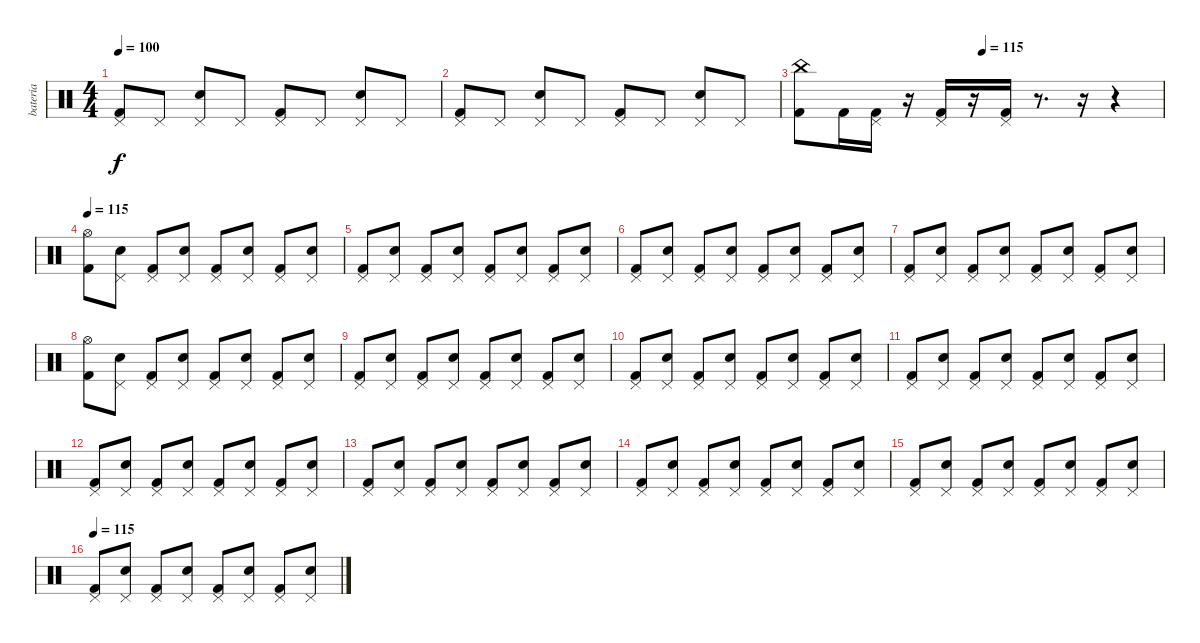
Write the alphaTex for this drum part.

\track ("bateria" "bateria") {instrument percussion}
\staff {score}
\articulation defaults
\ts (4 4)
\tempo 100
\clef neutral
\ks c
("Pedal Hi-Hat (hit)" "Kick (hit) 2").8{dy f} "Pedal Hi-Hat (hit)".8 ("Pedal Hi-Hat (hit)" "Snare (hit) 2").8 "Pedal Hi-Hat (hit)".8 ("Pedal Hi-Hat (hit)" "Kick (hit) 2").8 "Pedal Hi-Hat (hit)".8 ("Pedal Hi-Hat (hit)" "Snare (hit) 2").8 "Pedal Hi-Hat (hit)".8 |
("Pedal Hi-Hat (hit)" "Kick (hit) 2").8 "Pedal Hi-Hat (hit)".8 ("Pedal Hi-Hat (hit)" "Snare (hit) 2").8 "Pedal Hi-Hat (hit)".8 ("Pedal Hi-Hat (hit)" "Kick (hit) 2").8 "Pedal Hi-Hat (hit)".8 ("Pedal Hi-Hat (hit)" "Snare (hit) 2").8 "Pedal Hi-Hat (hit)".8 |
\tempo (115 0.5)
("China (hit)" "Kick (hit) 2").8 "Kick (hit) 2".16 ("Pedal Hi-Hat (hit)" "Kick (hit) 2").16 r.16 ("Pedal Hi-Hat (hit)" "Kick (hit) 2").16 r.16 ("Pedal Hi-Hat (hit)" "Kick (hit) 2").16 r.8{d} r.16 r.4 |
\section ("" "")
\tempo 115
("Hi-Hat (open)" "Kick (hit) 2").8 ("Pedal Hi-Hat (hit)" "Snare (hit) 2").8 ("Pedal Hi-Hat (hit)" "Kick (hit) 2").8 ("Pedal Hi-Hat (hit)" "Snare (hit) 2").8 ("Pedal Hi-Hat (hit)" "Kick (hit) 2").8 ("Pedal Hi-Hat (hit)" "Snare (hit) 2").8 ("Pedal Hi-Hat (hit)" "Kick (hit) 2").8 ("Pedal Hi-Hat (hit)" "Snare (hit) 2").8 |
("Pedal Hi-Hat (hit)" "Kick (hit) 2").8 ("Pedal Hi-Hat (hit)" "Snare (hit) 2").8 ("Pedal Hi-Hat (hit)" "Kick (hit) 2").8 ("Pedal Hi-Hat (hit)" "Snare (hit) 2").8 ("Pedal Hi-Hat (hit)" "Kick (hit) 2").8 ("Pedal Hi-Hat (hit)" "Snare (hit) 2").8 ("Pedal Hi-Hat (hit)" "Kick (hit) 2").8 ("Pedal Hi-Hat (hit)" "Snare (hit) 2").8 |
("Pedal Hi-Hat (hit)" "Kick (hit) 2").8 ("Pedal Hi-Hat (hit)" "Snare (hit) 2").8 ("Pedal Hi-Hat (hit)" "Kick (hit) 2").8 ("Pedal Hi-Hat (hit)" "Snare (hit) 2").8 ("Pedal Hi-Hat (hit)" "Kick (hit) 2").8 ("Pedal Hi-Hat (hit)" "Snare (hit) 2").8 ("Pedal Hi-Hat (hit)" "Kick (hit) 2").8 ("Pedal Hi-Hat (hit)" "Snare (hit) 2").8 |
("Pedal Hi-Hat (hit)" "Kick (hit) 2").8 ("Pedal Hi-Hat (hit)" "Snare (hit) 2").8 ("Pedal Hi-Hat (hit)" "Kick (hit) 2").8 ("Pedal Hi-Hat (hit)" "Snare (hit) 2").8 ("Pedal Hi-Hat (hit)" "Kick (hit) 2").8 ("Pedal Hi-Hat (hit)" "Snare (hit) 2").8 ("Pedal Hi-Hat (hit)" "Kick (hit) 2").8 ("Pedal Hi-Hat (hit)" "Snare (hit) 2").8 |
("Hi-Hat (open)" "Kick (hit) 2").8 ("Pedal Hi-Hat (hit)" "Snare (hit) 2").8 ("Pedal Hi-Hat (hit)" "Kick (hit) 2").8 ("Pedal Hi-Hat (hit)" "Snare (hit) 2").8 ("Pedal Hi-Hat (hit)" "Kick (hit) 2").8 ("Pedal Hi-Hat (hit)" "Snare (hit) 2").8 ("Pedal Hi-Hat (hit)" "Kick (hit) 2").8 ("Pedal Hi-Hat (hit)" "Snare (hit) 2").8 |
("Pedal Hi-Hat (hit)" "Kick (hit) 2").8 ("Pedal Hi-Hat (hit)" "Snare (hit) 2").8 ("Pedal Hi-Hat (hit)" "Kick (hit) 2").8 ("Pedal Hi-Hat (hit)" "Snare (hit) 2").8 ("Pedal Hi-Hat (hit)" "Kick (hit) 2").8 ("Pedal Hi-Hat (hit)" "Snare (hit) 2").8 ("Pedal Hi-Hat (hit)" "Kick (hit) 2").8 ("Pedal Hi-Hat (hit)" "Snare (hit) 2").8 |
("Pedal Hi-Hat (hit)" "Kick (hit) 2").8 ("Pedal Hi-Hat (hit)" "Snare (hit) 2").8 ("Pedal Hi-Hat (hit)" "Kick (hit) 2").8 ("Pedal Hi-Hat (hit)" "Snare (hit) 2").8 ("Pedal Hi-Hat (hit)" "Kick (hit) 2").8 ("Pedal Hi-Hat (hit)" "Snare (hit) 2").8 ("Pedal Hi-Hat (hit)" "Kick (hit) 2").8 ("Pedal Hi-Hat (hit)" "Snare (hit) 2").8 |
("Pedal Hi-Hat (hit)" "Kick (hit) 2").8 ("Pedal Hi-Hat (hit)" "Snare (hit) 2").8 ("Pedal Hi-Hat (hit)" "Kick (hit) 2").8 ("Pedal Hi-Hat (hit)" "Snare (hit) 2").8 ("Pedal Hi-Hat (hit)" "Kick (hit) 2").8 ("Pedal Hi-Hat (hit)" "Snare (hit) 2").8 ("Pedal Hi-Hat (hit)" "Kick (hit) 2").8 ("Pedal Hi-Hat (hit)" "Snare (hit) 2").8 |
("Pedal Hi-Hat (hit)" "Kick (hit) 2").8 ("Pedal Hi-Hat (hit)" "Snare (hit) 2").8 ("Pedal Hi-Hat (hit)" "Kick (hit) 2").8 ("Pedal Hi-Hat (hit)" "Snare (hit) 2").8 ("Pedal Hi-Hat (hit)" "Kick (hit) 2").8 ("Pedal Hi-Hat (hit)" "Snare (hit) 2").8 ("Pedal Hi-Hat (hit)" "Kick (hit) 2").8 ("Pedal Hi-Hat (hit)" "Snare (hit) 2").8 |
("Pedal Hi-Hat (hit)" "Kick (hit) 2").8 ("Pedal Hi-Hat (hit)" "Snare (hit) 2").8 ("Pedal Hi-Hat (hit)" "Kick (hit) 2").8 ("Pedal Hi-Hat (hit)" "Snare (hit) 2").8 ("Pedal Hi-Hat (hit)" "Kick (hit) 2").8 ("Pedal Hi-Hat (hit)" "Snare (hit) 2").8 ("Pedal Hi-Hat (hit)" "Kick (hit) 2").8 ("Pedal Hi-Hat (hit)" "Snare (hit) 2").8 |
("Pedal Hi-Hat (hit)" "Kick (hit) 2").8 ("Pedal Hi-Hat (hit)" "Snare (hit) 2").8 ("Pedal Hi-Hat (hit)" "Kick (hit) 2").8 ("Pedal Hi-Hat (hit)" "Snare (hit) 2").8 ("Pedal Hi-Hat (hit)" "Kick (hit) 2").8 ("Pedal Hi-Hat (hit)" "Snare (hit) 2").8 ("Pedal Hi-Hat (hit)" "Kick (hit) 2").8 ("Pedal Hi-Hat (hit)" "Snare (hit) 2").8 |
("Pedal Hi-Hat (hit)" "Kick (hit) 2").8 ("Pedal Hi-Hat (hit)" "Snare (hit) 2").8 ("Pedal Hi-Hat (hit)" "Kick (hit) 2").8 ("Pedal Hi-Hat (hit)" "Snare (hit) 2").8 ("Pedal Hi-Hat (hit)" "Kick (hit) 2").8 ("Pedal Hi-Hat (hit)" "Snare (hit) 2").8 ("Pedal Hi-Hat (hit)" "Kick (hit) 2").8 ("Pedal Hi-Hat (hit)" "Snare (hit) 2").8 |
\section ("" "")
\tempo 115
("Pedal Hi-Hat (hit)" "Kick (hit) 2").8 ("Pedal Hi-Hat (hit)" "Snare (hit) 2").8 ("Pedal Hi-Hat (hit)" "Kick (hit) 2").8 ("Pedal Hi-Hat (hit)" "Snare (hit) 2").8 ("Pedal Hi-Hat (hit)" "Kick (hit) 2").8 ("Pedal Hi-Hat (hit)" "Snare (hit) 2").8 ("Pedal Hi-Hat (hit)" "Kick (hit) 2").8 ("Pedal Hi-Hat (hit)" "Snare (hit) 2").8
